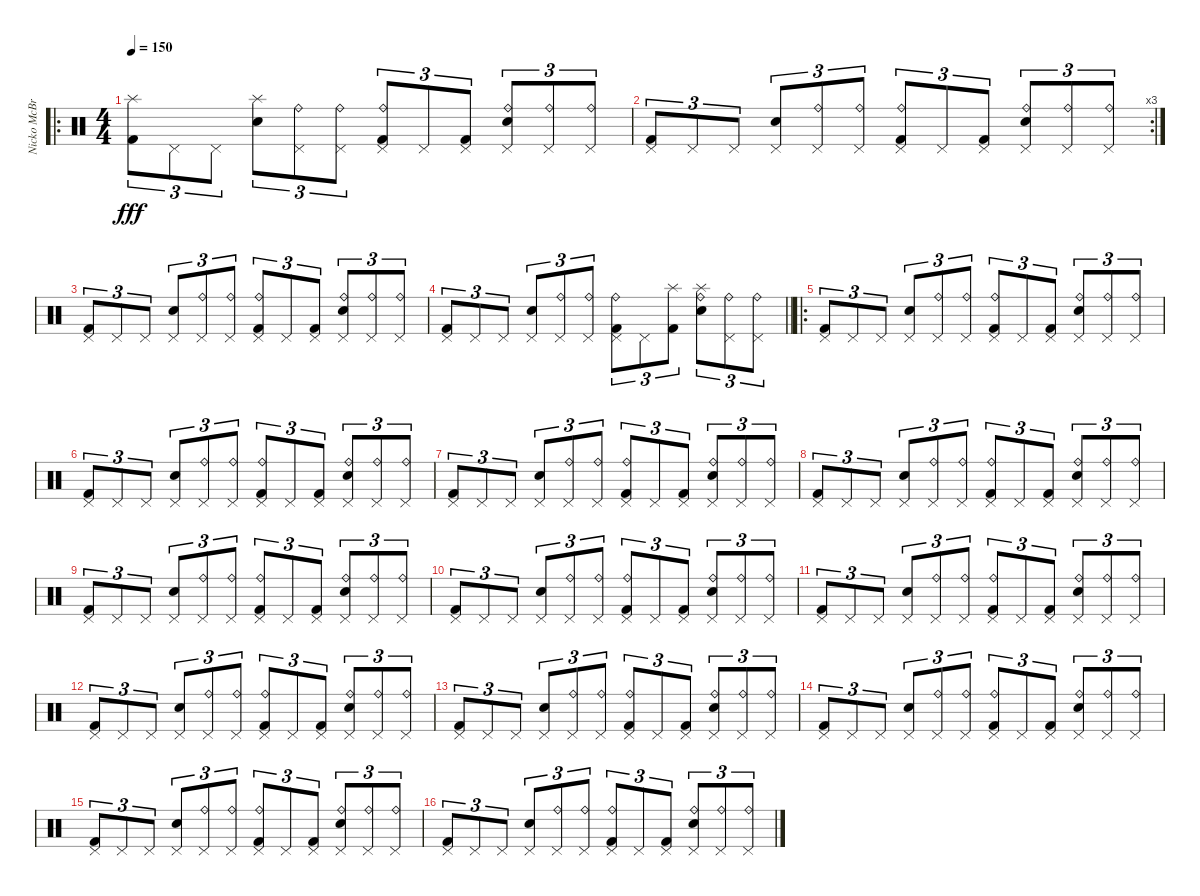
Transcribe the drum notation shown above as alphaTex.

\track ("Nicko McBrian (Drums)" "Nicko McBr") {instrument percussion}
\staff {score}
\articulation defaults
\ro
\ts (4 4)
\tempo 180
\tempo 160
\tempo 150
\clef neutral
\ks c
("Splash (hit)" "Kick (hit) 2").8{tu (3 2) dy fff} "Pedal Hi-Hat (hit)".8{tu (3 2)} "Pedal Hi-Hat (hit)".8{tu (3 2)} ("Splash (hit)" "Snare (hit) 2").8{tu (3 2)} ("Pedal Hi-Hat (hit)" "Ride (bell)").8{tu (3 2)} ("Pedal Hi-Hat (hit)" "Ride (bell)").8{tu (3 2)} ("Pedal Hi-Hat (hit)" "Kick (hit) 2" "Ride (bell)").8{tu (3 2)} "Pedal Hi-Hat (hit)".8{tu (3 2)} ("Pedal Hi-Hat (hit)" "Kick (hit) 2").8{tu (3 2)} ("Pedal Hi-Hat (hit)" "Snare (hit) 2" "Ride (bell)").8{tu (3 2)} ("Pedal Hi-Hat (hit)" "Ride (bell)").8{tu (3 2)} ("Pedal Hi-Hat (hit)" "Ride (bell)").8{tu (3 2)} |
\rc 3
("Pedal Hi-Hat (hit)" "Kick (hit) 2").8{tu (3 2)} "Pedal Hi-Hat (hit)".8{tu (3 2)} "Pedal Hi-Hat (hit)".8{tu (3 2)} ("Pedal Hi-Hat (hit)" "Snare (hit) 2").8{tu (3 2)} ("Pedal Hi-Hat (hit)" "Ride (bell)").8{tu (3 2)} ("Pedal Hi-Hat (hit)" "Ride (bell)").8{tu (3 2)} ("Pedal Hi-Hat (hit)" "Kick (hit) 2" "Ride (bell)").8{tu (3 2)} "Pedal Hi-Hat (hit)".8{tu (3 2)} ("Pedal Hi-Hat (hit)" "Kick (hit) 2").8{tu (3 2)} ("Pedal Hi-Hat (hit)" "Snare (hit) 2" "Ride (bell)").8{tu (3 2)} ("Pedal Hi-Hat (hit)" "Ride (bell)").8{tu (3 2)} ("Pedal Hi-Hat (hit)" "Ride (bell)").8{tu (3 2)} |
("Pedal Hi-Hat (hit)" "Kick (hit) 2").8{tu (3 2)} "Pedal Hi-Hat (hit)".8{tu (3 2)} "Pedal Hi-Hat (hit)".8{tu (3 2)} ("Pedal Hi-Hat (hit)" "Snare (hit) 2").8{tu (3 2)} ("Pedal Hi-Hat (hit)" "Ride (bell)").8{tu (3 2)} ("Pedal Hi-Hat (hit)" "Ride (bell)").8{tu (3 2)} ("Pedal Hi-Hat (hit)" "Kick (hit) 2" "Ride (bell)").8{tu (3 2)} "Pedal Hi-Hat (hit)".8{tu (3 2)} ("Pedal Hi-Hat (hit)" "Kick (hit) 2").8{tu (3 2)} ("Pedal Hi-Hat (hit)" "Snare (hit) 2" "Ride (bell)").8{tu (3 2)} ("Pedal Hi-Hat (hit)" "Ride (bell)").8{tu (3 2)} ("Pedal Hi-Hat (hit)" "Ride (bell)").8{tu (3 2)} |
\barLineRight lightlight
("Pedal Hi-Hat (hit)" "Kick (hit) 2").8{tu (3 2)} "Pedal Hi-Hat (hit)".8{tu (3 2)} "Pedal Hi-Hat (hit)".8{tu (3 2)} ("Pedal Hi-Hat (hit)" "Snare (hit) 2").8{tu (3 2)} ("Pedal Hi-Hat (hit)" "Ride (bell)").8{tu (3 2)} ("Pedal Hi-Hat (hit)" "Ride (bell)").8{tu (3 2)} ("Pedal Hi-Hat (hit)" "Kick (hit) 2" "Ride (bell)").8{tu (3 2)} "Pedal Hi-Hat (hit)".8{tu (3 2)} ("Splash (hit)" "Kick (hit) 2").8{tu (3 2)} ("Splash (hit)" "Snare (hit) 2" "Ride (bell)").8{tu (3 2)} ("Pedal Hi-Hat (hit)" "Ride (bell)").8{tu (3 2)} ("Pedal Hi-Hat (hit)" "Ride (bell)").8{tu (3 2)} |
\ro
("Pedal Hi-Hat (hit)" "Kick (hit) 2").8{tu (3 2)} "Pedal Hi-Hat (hit)".8{tu (3 2)} "Pedal Hi-Hat (hit)".8{tu (3 2)} ("Pedal Hi-Hat (hit)" "Snare (hit) 2").8{tu (3 2)} ("Pedal Hi-Hat (hit)" "Ride (bell)").8{tu (3 2)} ("Pedal Hi-Hat (hit)" "Ride (bell)").8{tu (3 2)} ("Pedal Hi-Hat (hit)" "Kick (hit) 2" "Ride (bell)").8{tu (3 2)} "Pedal Hi-Hat (hit)".8{tu (3 2)} ("Pedal Hi-Hat (hit)" "Kick (hit) 2").8{tu (3 2)} ("Pedal Hi-Hat (hit)" "Snare (hit) 2" "Ride (bell)").8{tu (3 2)} ("Pedal Hi-Hat (hit)" "Ride (bell)").8{tu (3 2)} ("Pedal Hi-Hat (hit)" "Ride (bell)").8{tu (3 2)} |
("Pedal Hi-Hat (hit)" "Kick (hit) 2").8{tu (3 2)} "Pedal Hi-Hat (hit)".8{tu (3 2)} "Pedal Hi-Hat (hit)".8{tu (3 2)} ("Pedal Hi-Hat (hit)" "Snare (hit) 2").8{tu (3 2)} ("Pedal Hi-Hat (hit)" "Ride (bell)").8{tu (3 2)} ("Pedal Hi-Hat (hit)" "Ride (bell)").8{tu (3 2)} ("Pedal Hi-Hat (hit)" "Kick (hit) 2" "Ride (bell)").8{tu (3 2)} "Pedal Hi-Hat (hit)".8{tu (3 2)} ("Pedal Hi-Hat (hit)" "Kick (hit) 2").8{tu (3 2)} ("Pedal Hi-Hat (hit)" "Snare (hit) 2" "Ride (bell)").8{tu (3 2)} ("Pedal Hi-Hat (hit)" "Ride (bell)").8{tu (3 2)} ("Pedal Hi-Hat (hit)" "Ride (bell)").8{tu (3 2)} |
("Pedal Hi-Hat (hit)" "Kick (hit) 2").8{tu (3 2)} "Pedal Hi-Hat (hit)".8{tu (3 2)} "Pedal Hi-Hat (hit)".8{tu (3 2)} ("Pedal Hi-Hat (hit)" "Snare (hit) 2").8{tu (3 2)} ("Pedal Hi-Hat (hit)" "Ride (bell)").8{tu (3 2)} ("Pedal Hi-Hat (hit)" "Ride (bell)").8{tu (3 2)} ("Pedal Hi-Hat (hit)" "Kick (hit) 2" "Ride (bell)").8{tu (3 2)} "Pedal Hi-Hat (hit)".8{tu (3 2)} ("Pedal Hi-Hat (hit)" "Kick (hit) 2").8{tu (3 2)} ("Pedal Hi-Hat (hit)" "Snare (hit) 2" "Ride (bell)").8{tu (3 2)} ("Pedal Hi-Hat (hit)" "Ride (bell)").8{tu (3 2)} ("Pedal Hi-Hat (hit)" "Ride (bell)").8{tu (3 2)} |
("Pedal Hi-Hat (hit)" "Kick (hit) 2").8{tu (3 2)} "Pedal Hi-Hat (hit)".8{tu (3 2)} "Pedal Hi-Hat (hit)".8{tu (3 2)} ("Pedal Hi-Hat (hit)" "Snare (hit) 2").8{tu (3 2)} ("Pedal Hi-Hat (hit)" "Ride (bell)").8{tu (3 2)} ("Pedal Hi-Hat (hit)" "Ride (bell)").8{tu (3 2)} ("Pedal Hi-Hat (hit)" "Kick (hit) 2" "Ride (bell)").8{tu (3 2)} "Pedal Hi-Hat (hit)".8{tu (3 2)} ("Pedal Hi-Hat (hit)" "Kick (hit) 2").8{tu (3 2)} ("Pedal Hi-Hat (hit)" "Snare (hit) 2" "Ride (bell)").8{tu (3 2)} ("Pedal Hi-Hat (hit)" "Ride (bell)").8{tu (3 2)} ("Pedal Hi-Hat (hit)" "Ride (bell)").8{tu (3 2)} |
("Pedal Hi-Hat (hit)" "Kick (hit) 2").8{tu (3 2)} "Pedal Hi-Hat (hit)".8{tu (3 2)} "Pedal Hi-Hat (hit)".8{tu (3 2)} ("Pedal Hi-Hat (hit)" "Snare (hit) 2").8{tu (3 2)} ("Pedal Hi-Hat (hit)" "Ride (bell)").8{tu (3 2)} ("Pedal Hi-Hat (hit)" "Ride (bell)").8{tu (3 2)} ("Pedal Hi-Hat (hit)" "Kick (hit) 2" "Ride (bell)").8{tu (3 2)} "Pedal Hi-Hat (hit)".8{tu (3 2)} ("Pedal Hi-Hat (hit)" "Kick (hit) 2").8{tu (3 2)} ("Pedal Hi-Hat (hit)" "Snare (hit) 2" "Ride (bell)").8{tu (3 2)} ("Pedal Hi-Hat (hit)" "Ride (bell)").8{tu (3 2)} ("Pedal Hi-Hat (hit)" "Ride (bell)").8{tu (3 2)} |
("Pedal Hi-Hat (hit)" "Kick (hit) 2").8{tu (3 2)} "Pedal Hi-Hat (hit)".8{tu (3 2)} "Pedal Hi-Hat (hit)".8{tu (3 2)} ("Pedal Hi-Hat (hit)" "Snare (hit) 2").8{tu (3 2)} ("Pedal Hi-Hat (hit)" "Ride (bell)").8{tu (3 2)} ("Pedal Hi-Hat (hit)" "Ride (bell)").8{tu (3 2)} ("Pedal Hi-Hat (hit)" "Kick (hit) 2" "Ride (bell)").8{tu (3 2)} "Pedal Hi-Hat (hit)".8{tu (3 2)} ("Pedal Hi-Hat (hit)" "Kick (hit) 2").8{tu (3 2)} ("Pedal Hi-Hat (hit)" "Snare (hit) 2" "Ride (bell)").8{tu (3 2)} ("Pedal Hi-Hat (hit)" "Ride (bell)").8{tu (3 2)} ("Pedal Hi-Hat (hit)" "Ride (bell)").8{tu (3 2)} |
("Pedal Hi-Hat (hit)" "Kick (hit) 2").8{tu (3 2)} "Pedal Hi-Hat (hit)".8{tu (3 2)} "Pedal Hi-Hat (hit)".8{tu (3 2)} ("Pedal Hi-Hat (hit)" "Snare (hit) 2").8{tu (3 2)} ("Pedal Hi-Hat (hit)" "Ride (bell)").8{tu (3 2)} ("Pedal Hi-Hat (hit)" "Ride (bell)").8{tu (3 2)} ("Pedal Hi-Hat (hit)" "Kick (hit) 2" "Ride (bell)").8{tu (3 2)} "Pedal Hi-Hat (hit)".8{tu (3 2)} ("Pedal Hi-Hat (hit)" "Kick (hit) 2").8{tu (3 2)} ("Pedal Hi-Hat (hit)" "Snare (hit) 2" "Ride (bell)").8{tu (3 2)} ("Pedal Hi-Hat (hit)" "Ride (bell)").8{tu (3 2)} ("Pedal Hi-Hat (hit)" "Ride (bell)").8{tu (3 2)} |
("Pedal Hi-Hat (hit)" "Kick (hit) 2").8{tu (3 2)} "Pedal Hi-Hat (hit)".8{tu (3 2)} "Pedal Hi-Hat (hit)".8{tu (3 2)} ("Pedal Hi-Hat (hit)" "Snare (hit) 2").8{tu (3 2)} ("Pedal Hi-Hat (hit)" "Ride (bell)").8{tu (3 2)} ("Pedal Hi-Hat (hit)" "Ride (bell)").8{tu (3 2)} ("Pedal Hi-Hat (hit)" "Kick (hit) 2" "Ride (bell)").8{tu (3 2)} "Pedal Hi-Hat (hit)".8{tu (3 2)} ("Pedal Hi-Hat (hit)" "Kick (hit) 2").8{tu (3 2)} ("Pedal Hi-Hat (hit)" "Snare (hit) 2" "Ride (bell)").8{tu (3 2)} ("Pedal Hi-Hat (hit)" "Ride (bell)").8{tu (3 2)} ("Pedal Hi-Hat (hit)" "Ride (bell)").8{tu (3 2)} |
("Pedal Hi-Hat (hit)" "Kick (hit) 2").8{tu (3 2)} "Pedal Hi-Hat (hit)".8{tu (3 2)} "Pedal Hi-Hat (hit)".8{tu (3 2)} ("Pedal Hi-Hat (hit)" "Snare (hit) 2").8{tu (3 2)} ("Pedal Hi-Hat (hit)" "Ride (bell)").8{tu (3 2)} ("Pedal Hi-Hat (hit)" "Ride (bell)").8{tu (3 2)} ("Pedal Hi-Hat (hit)" "Kick (hit) 2" "Ride (bell)").8{tu (3 2)} "Pedal Hi-Hat (hit)".8{tu (3 2)} ("Pedal Hi-Hat (hit)" "Kick (hit) 2").8{tu (3 2)} ("Pedal Hi-Hat (hit)" "Snare (hit) 2" "Ride (bell)").8{tu (3 2)} ("Pedal Hi-Hat (hit)" "Ride (bell)").8{tu (3 2)} ("Pedal Hi-Hat (hit)" "Ride (bell)").8{tu (3 2)} |
("Pedal Hi-Hat (hit)" "Kick (hit) 2").8{tu (3 2)} "Pedal Hi-Hat (hit)".8{tu (3 2)} "Pedal Hi-Hat (hit)".8{tu (3 2)} ("Pedal Hi-Hat (hit)" "Snare (hit) 2").8{tu (3 2)} ("Pedal Hi-Hat (hit)" "Ride (bell)").8{tu (3 2)} ("Pedal Hi-Hat (hit)" "Ride (bell)").8{tu (3 2)} ("Pedal Hi-Hat (hit)" "Kick (hit) 2" "Ride (bell)").8{tu (3 2)} "Pedal Hi-Hat (hit)".8{tu (3 2)} ("Pedal Hi-Hat (hit)" "Kick (hit) 2").8{tu (3 2)} ("Pedal Hi-Hat (hit)" "Snare (hit) 2" "Ride (bell)").8{tu (3 2)} ("Pedal Hi-Hat (hit)" "Ride (bell)").8{tu (3 2)} ("Pedal Hi-Hat (hit)" "Ride (bell)").8{tu (3 2)} |
("Pedal Hi-Hat (hit)" "Kick (hit) 2").8{tu (3 2)} "Pedal Hi-Hat (hit)".8{tu (3 2)} "Pedal Hi-Hat (hit)".8{tu (3 2)} ("Pedal Hi-Hat (hit)" "Snare (hit) 2").8{tu (3 2)} ("Pedal Hi-Hat (hit)" "Ride (bell)").8{tu (3 2)} ("Pedal Hi-Hat (hit)" "Ride (bell)").8{tu (3 2)} ("Pedal Hi-Hat (hit)" "Kick (hit) 2" "Ride (bell)").8{tu (3 2)} "Pedal Hi-Hat (hit)".8{tu (3 2)} ("Pedal Hi-Hat (hit)" "Kick (hit) 2").8{tu (3 2)} ("Pedal Hi-Hat (hit)" "Snare (hit) 2" "Ride (bell)").8{tu (3 2)} ("Pedal Hi-Hat (hit)" "Ride (bell)").8{tu (3 2)} ("Pedal Hi-Hat (hit)" "Ride (bell)").8{tu (3 2)} |
("Pedal Hi-Hat (hit)" "Kick (hit) 2").8{tu (3 2)} "Pedal Hi-Hat (hit)".8{tu (3 2)} "Pedal Hi-Hat (hit)".8{tu (3 2)} ("Pedal Hi-Hat (hit)" "Snare (hit) 2").8{tu (3 2)} ("Pedal Hi-Hat (hit)" "Ride (bell)").8{tu (3 2)} ("Pedal Hi-Hat (hit)" "Ride (bell)").8{tu (3 2)} ("Pedal Hi-Hat (hit)" "Kick (hit) 2" "Ride (bell)").8{tu (3 2)} "Pedal Hi-Hat (hit)".8{tu (3 2)} ("Pedal Hi-Hat (hit)" "Kick (hit) 2").8{tu (3 2)} ("Pedal Hi-Hat (hit)" "Snare (hit) 2" "Ride (bell)").8{tu (3 2)} ("Pedal Hi-Hat (hit)" "Ride (bell)").8{tu (3 2)} ("Pedal Hi-Hat (hit)" "Ride (bell)").8{tu (3 2)}
